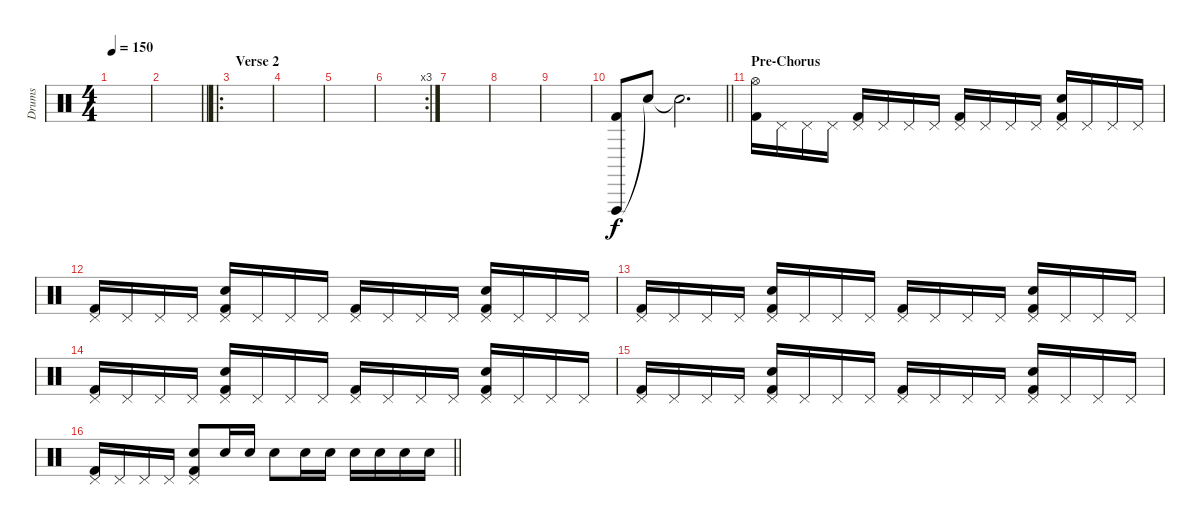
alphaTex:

\track ("Drums" "Drums") {instrument percussion}
\staff {score}
\articulation defaults
\ts (4 4)
\tempo 150
\clef neutral
\ks c
|
\barLineRight lightlight
|
\ro
\section ("" "Verse 2")
|
|
|
\rc 3
|
|
|
|
\barLineRight lightlight
("Vibraslap (hit)" "Kick (hit) 2").8 "Snare (hit)"{t}.8 "Snare (hit)"{t}.2{d} |
\section ("" "Pre-Chorus")
("Hi-Hat (open)" "Kick (hit) 2").16 "Pedal Hi-Hat (hit)".16 "Pedal Hi-Hat (hit)".16 "Pedal Hi-Hat (hit)".16 ("Pedal Hi-Hat (hit)" "Kick (hit) 2").16 "Pedal Hi-Hat (hit)".16 "Pedal Hi-Hat (hit)".16 "Pedal Hi-Hat (hit)".16 ("Pedal Hi-Hat (hit)" "Kick (hit) 2").16 "Pedal Hi-Hat (hit)".16 "Pedal Hi-Hat (hit)".16 "Pedal Hi-Hat (hit)".16 ("Pedal Hi-Hat (hit)" "Snare (hit) 2" "Kick (hit) 2").16 "Pedal Hi-Hat (hit)".16 "Pedal Hi-Hat (hit)".16 "Pedal Hi-Hat (hit)".16 |
("Pedal Hi-Hat (hit)" "Kick (hit) 2").16 "Pedal Hi-Hat (hit)".16 "Pedal Hi-Hat (hit)".16 "Pedal Hi-Hat (hit)".16 ("Pedal Hi-Hat (hit)" "Snare (hit) 2" "Kick (hit) 2").16 "Pedal Hi-Hat (hit)".16 "Pedal Hi-Hat (hit)".16 "Pedal Hi-Hat (hit)".16 ("Pedal Hi-Hat (hit)" "Kick (hit) 2").16 "Pedal Hi-Hat (hit)".16 "Pedal Hi-Hat (hit)".16 "Pedal Hi-Hat (hit)".16 ("Pedal Hi-Hat (hit)" "Snare (hit) 2" "Kick (hit) 2").16 "Pedal Hi-Hat (hit)".16 "Pedal Hi-Hat (hit)".16 "Pedal Hi-Hat (hit)".16 |
("Pedal Hi-Hat (hit)" "Kick (hit) 2").16 "Pedal Hi-Hat (hit)".16 "Pedal Hi-Hat (hit)".16 "Pedal Hi-Hat (hit)".16 ("Pedal Hi-Hat (hit)" "Snare (hit) 2" "Kick (hit) 2").16 "Pedal Hi-Hat (hit)".16 "Pedal Hi-Hat (hit)".16 "Pedal Hi-Hat (hit)".16 ("Pedal Hi-Hat (hit)" "Kick (hit) 2").16 "Pedal Hi-Hat (hit)".16 "Pedal Hi-Hat (hit)".16 "Pedal Hi-Hat (hit)".16 ("Pedal Hi-Hat (hit)" "Snare (hit) 2" "Kick (hit) 2").16 "Pedal Hi-Hat (hit)".16 "Pedal Hi-Hat (hit)".16 "Pedal Hi-Hat (hit)".16 |
("Pedal Hi-Hat (hit)" "Kick (hit) 2").16 "Pedal Hi-Hat (hit)".16 "Pedal Hi-Hat (hit)".16 "Pedal Hi-Hat (hit)".16 ("Pedal Hi-Hat (hit)" "Snare (hit) 2" "Kick (hit) 2").16 "Pedal Hi-Hat (hit)".16 "Pedal Hi-Hat (hit)".16 "Pedal Hi-Hat (hit)".16 ("Pedal Hi-Hat (hit)" "Kick (hit) 2").16 "Pedal Hi-Hat (hit)".16 "Pedal Hi-Hat (hit)".16 "Pedal Hi-Hat (hit)".16 ("Pedal Hi-Hat (hit)" "Snare (hit) 2" "Kick (hit) 2").16 "Pedal Hi-Hat (hit)".16 "Pedal Hi-Hat (hit)".16 "Pedal Hi-Hat (hit)".16 |
("Pedal Hi-Hat (hit)" "Kick (hit) 2").16 "Pedal Hi-Hat (hit)".16 "Pedal Hi-Hat (hit)".16 "Pedal Hi-Hat (hit)".16 ("Pedal Hi-Hat (hit)" "Snare (hit) 2" "Kick (hit) 2").16 "Pedal Hi-Hat (hit)".16 "Pedal Hi-Hat (hit)".16 "Pedal Hi-Hat (hit)".16 ("Pedal Hi-Hat (hit)" "Kick (hit) 2").16 "Pedal Hi-Hat (hit)".16 "Pedal Hi-Hat (hit)".16 "Pedal Hi-Hat (hit)".16 ("Pedal Hi-Hat (hit)" "Snare (hit) 2" "Kick (hit) 2").16 "Pedal Hi-Hat (hit)".16 "Pedal Hi-Hat (hit)".16 "Pedal Hi-Hat (hit)".16 |
\barLineRight lightlight
("Pedal Hi-Hat (hit)" "Kick (hit) 2").16 "Pedal Hi-Hat (hit)".16 "Pedal Hi-Hat (hit)".16 "Pedal Hi-Hat (hit)".16 ("Pedal Hi-Hat (hit)" "Snare (hit) 2" "Kick (hit) 2").8 "Snare (hit) 2".16 "Snare (hit) 2".16 "Snare (hit) 2".8 "Snare (hit) 2".16 "Snare (hit) 2".16 "Snare (hit) 2".16 "Snare (hit) 2".16 "Snare (hit) 2".16 "Snare (hit) 2".16
